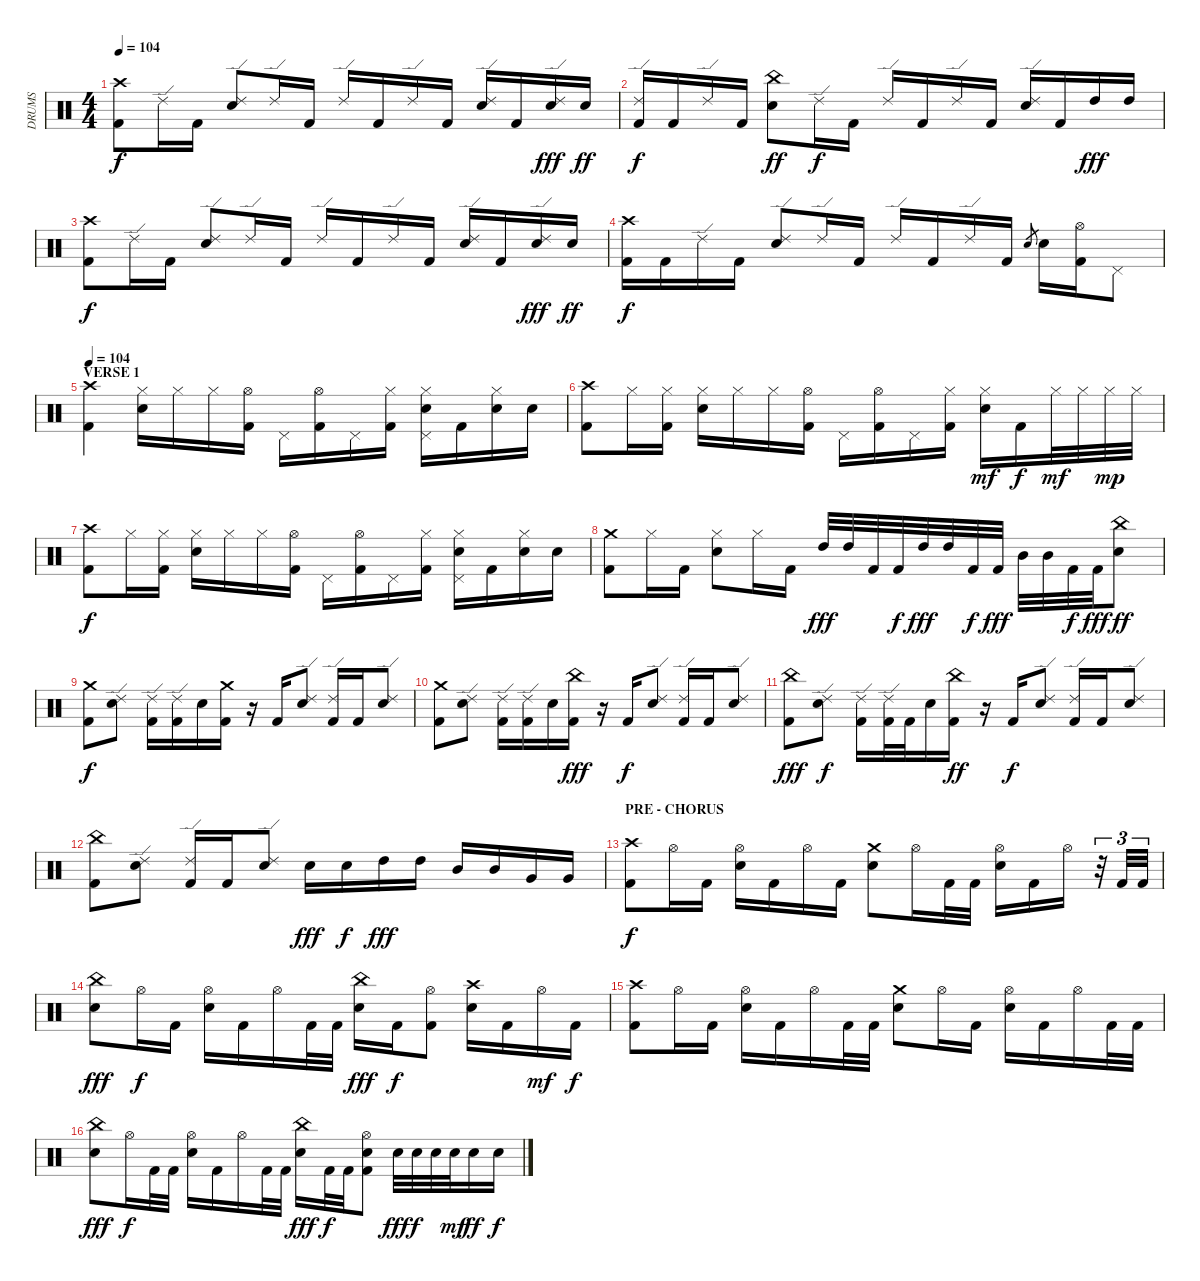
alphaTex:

\track ("DRUMS" "DRUMS") {instrument percussion}
\staff {score}
\articulation defaults
\ts (4 4)
\tempo 104
\clef neutral
\ks c
("Crash high (hit)" "Kick (hit) 2").8{dy f} "Ride (edge) 2".16 "Kick (hit) 2".16 ("Ride (edge) 2" "Electric Snare (hit)").8 "Ride (edge) 2".16 "Kick (hit) 2".16 "Ride (edge) 2".16 "Kick (hit) 2".16 "Ride (edge) 2".16 "Kick (hit) 2".16 ("Ride (edge) 2" "Electric Snare (hit)").16 "Kick (hit) 2".16 ("Ride (edge) 2" "Electric Snare (hit)").16{dy fff} "Electric Snare (hit)".16{dy ff} |
("Ride (edge) 2" "Kick (hit) 2").16{dy f} "Kick (hit) 2".16 "Ride (edge) 2".16 "Kick (hit) 2".16 ("China (hit)" "Electric Snare (hit)").8{dy ff} "Ride (edge) 2".16{dy f} "Kick (hit) 2".16 "Ride (edge) 2".16 "Kick (hit) 2".16 "Ride (edge) 2".16 "Kick (hit) 2".16 ("Ride (edge) 2" "Electric Snare (hit)").16 "Kick (hit) 2".16 "High Tom (hit)".16{dy fff} "High Tom (hit)".16 |
("Crash high (hit)" "Kick (hit) 2").8{dy f} "Ride (edge) 2".16 "Kick (hit) 2".16 ("Ride (edge) 2" "Electric Snare (hit)").8 "Ride (edge) 2".16 "Kick (hit) 2".16 "Ride (edge) 2".16 "Kick (hit) 2".16 "Ride (edge) 2".16 "Kick (hit) 2".16 ("Ride (edge) 2" "Electric Snare (hit)").16 "Kick (hit) 2".16 ("Ride (edge) 2" "Electric Snare (hit)").16{dy fff} "Electric Snare (hit)".16{dy ff} |
("Crash high (hit)" "Kick (hit) 2").16{dy f} "Kick (hit) 2".16 "Ride (edge) 2".16 "Kick (hit) 2".16 ("Ride (edge) 2" "Electric Snare (hit)").8 "Ride (edge) 2".16 "Kick (hit) 2".16 "Ride (edge) 2".16 "Kick (hit) 2".16 "Ride (edge) 2".16 "Kick (hit) 2".16 "Electric Snare (hit)"{h}.8{gr} "Electric Snare (hit)".16 ("Hi-Hat (open)" "Kick (hit) 2").16 "Pedal Hi-Hat (hit)".8 |
\section ("" "VERSE 1")
\tempo 104
("Crash high (hit)" "Kick (hit) 2").4 ("Hi-Hat (closed)" "Electric Snare (hit)").16 "Hi-Hat (closed)".16 "Hi-Hat (closed)".16 ("Hi-Hat (open)" "Kick (hit) 2").16 "Pedal Hi-Hat (hit)".16 ("Hi-Hat (open)" "Kick (hit) 2").16 "Pedal Hi-Hat (hit)".16 ("Hi-Hat (closed)" "Kick (hit) 2").16 ("Hi-Hat (closed)" "Electric Snare (hit)" "Pedal Hi-Hat (hit)").16 "Kick (hit) 2".16 ("Hi-Hat (closed)" "Electric Snare (hit)").16 "Electric Snare (hit)".16 |
("Crash high (hit)" "Kick (hit) 2").8 "Hi-Hat (closed)".16 ("Hi-Hat (closed)" "Kick (hit) 2").16 ("Hi-Hat (closed)" "Electric Snare (hit)").16 "Hi-Hat (closed)".16 "Hi-Hat (closed)".16 ("Hi-Hat (open)" "Kick (hit) 2").16 "Pedal Hi-Hat (hit)".16 ("Hi-Hat (open)" "Kick (hit) 2").16 "Pedal Hi-Hat (hit)".16 ("Hi-Hat (closed)" "Kick (hit) 2").16 ("Hi-Hat (closed)" "Electric Snare (hit)").16{dy mf} "Kick (hit) 2".16{dy f} "Hi-Hat (closed)".32{dy mf} "Hi-Hat (closed)".32 "Hi-Hat (closed)".32{dy mp} "Hi-Hat (closed)".32 |
("Crash high (hit)" "Kick (hit) 2").8{dy f} "Hi-Hat (closed)".16 ("Hi-Hat (closed)" "Kick (hit) 2").16 ("Hi-Hat (closed)" "Electric Snare (hit)").16 "Hi-Hat (closed)".16 "Hi-Hat (closed)".16 ("Hi-Hat (open)" "Kick (hit) 2").16 "Pedal Hi-Hat (hit)".16 ("Hi-Hat (open)" "Kick (hit) 2").16 "Pedal Hi-Hat (hit)".16 ("Hi-Hat (closed)" "Kick (hit) 2").16 ("Hi-Hat (closed)" "Electric Snare (hit)" "Pedal Hi-Hat (hit)").16 "Kick (hit) 2".16 ("Hi-Hat (closed)" "Electric Snare (hit)").16 "Electric Snare (hit)".16 |
("Crash medium (hit)" "Kick (hit) 2").8 "Hi-Hat (closed)".16 "Kick (hit) 2".16 ("Hi-Hat (closed)" "Electric Snare (hit)").8 "Hi-Hat (closed)".16 "Kick (hit) 2".16 "High Tom (hit)".32{dy fff} "High Tom (hit)".32 "Kick (hit) 2".32 "Kick (hit) 2".32{dy f} "High Tom (hit)".32{dy fff} "High Tom (hit)".32 "Kick (hit) 2".32{dy f} "Kick (hit) 2".32{dy fff} "Mid Tom (hit)".32 "Mid Tom (hit)".32 "Kick (hit) 2".32{dy f} "Kick (hit) 2".32{dy fff} ("China (hit)" "Electric Snare (hit)").8{dy ff} |
("Crash medium (hit)" "Kick (hit) 2").8{dy f} ("Ride (edge) 2" "Electric Snare (hit)").8 ("Ride (edge) 2" "Kick (hit) 2").16 ("Ride (edge) 2" "Kick (hit) 2").16 "Electric Snare (hit)".16 ("Crash medium (hit)" "Kick (hit) 2").16 r.16 "Kick (hit) 2".16 ("Ride (edge) 2" "Electric Snare (hit)").8 ("Ride (edge) 2" "Kick (hit) 2").16 "Kick (hit) 2".16 ("Ride (edge) 2" "Electric Snare (hit)").8 |
("Crash medium (hit)" "Kick (hit) 2").8 ("Ride (edge) 2" "Electric Snare (hit)").8 ("Ride (edge) 2" "Kick (hit) 2").16 ("Ride (edge) 2" "Kick (hit) 2").16 "Electric Snare (hit)".16 ("China (hit)" "Kick (hit) 2").16{dy fff} r.16 "Kick (hit) 2".16{dy f} ("Ride (edge) 2" "Electric Snare (hit)").8 ("Ride (edge) 2" "Kick (hit) 2").16 "Kick (hit) 2".16 ("Ride (edge) 2" "Electric Snare (hit)").8 |
("China (hit)" "Kick (hit) 2").8{dy fff} ("Ride (edge) 2" "Electric Snare (hit)").8{dy f} ("Ride (edge) 2" "Kick (hit) 2").16 ("Ride (edge) 2" "Kick (hit) 2").32 "Kick (hit) 2".32 "Electric Snare (hit)".16 ("China (hit)" "Kick (hit) 2").16{dy ff} r.16 "Kick (hit) 2".16{dy f} ("Ride (edge) 2" "Electric Snare (hit)").8 ("Ride (edge) 2" "Kick (hit) 2").16 "Kick (hit) 2".16 ("Ride (edge) 2" "Electric Snare (hit)").8 |
("China (hit)" "Kick (hit) 2").8 ("Ride (edge) 2" "Electric Snare (hit)").8 ("Ride (edge) 2" "Kick (hit) 2").16 "Kick (hit) 2".16 ("Ride (edge) 2" "Electric Snare (hit)").8 "Electric Snare (hit)".16{dy fff} "Electric Snare (hit)".16{dy f} "High Tom (hit)".16{dy fff} "High Tom (hit)".16 "Mid Tom (hit)".16 "Mid Tom (hit)".16 "Very Low Tom (hit)".16 "Very Low Tom (hit)".16 |
\section ("" "PRE - CHORUS")
("Crash high (hit)" "Kick (hit) 2").8{dy f} "Hi-Hat (open)".16 "Kick (hit) 2".16 ("Hi-Hat (open)" "Electric Snare (hit)").16 "Kick (hit) 2".16 "Hi-Hat (open)".16 "Kick (hit) 2".16 ("Crash medium (hit)" "Electric Snare (hit)").8 "Hi-Hat (open)".16 "Kick (hit) 2".32 "Kick (hit) 2".32 ("Hi-Hat (open)" "Electric Snare (hit)").16 "Kick (hit) 2".16 "Hi-Hat (open)".16 r.32{tu (3 2)} "Kick (hit) 2".32{tu (3 2)} "Kick (hit) 2".32{tu (3 2)} |
("China (hit)" "Electric Snare (hit)").8{dy fff} "Hi-Hat (open)".16{dy f} "Kick (hit) 2".16 ("Hi-Hat (open)" "Electric Snare (hit)").16 "Kick (hit) 2".16 "Hi-Hat (open)".16 "Kick (hit) 2".32 "Kick (hit) 2".32 ("China (hit)" "Electric Snare (hit)").16{dy fff} "Kick (hit) 2".16{dy f} ("Hi-Hat (open)" "Kick (hit) 2").8 ("Crash high (hit)" "Electric Snare (hit)").16 "Kick (hit) 2".16 "Hi-Hat (open)".16{dy mf} "Kick (hit) 2".16{dy f} |
("Crash high (hit)" "Kick (hit) 2").8 "Hi-Hat (open)".16 "Kick (hit) 2".16 ("Hi-Hat (open)" "Electric Snare (hit)").16 "Kick (hit) 2".16 "Hi-Hat (open)".16 "Kick (hit) 2".32 "Kick (hit) 2".32 ("Crash medium (hit)" "Electric Snare (hit)").8 "Hi-Hat (open)".16 "Kick (hit) 2".16 ("Hi-Hat (open)" "Electric Snare (hit)").16 "Kick (hit) 2".16 "Hi-Hat (open)".16 "Kick (hit) 2".32 "Kick (hit) 2".32 |
("China (hit)" "Electric Snare (hit)").8{dy fff} "Hi-Hat (open)".16{dy f} "Kick (hit) 2".32 "Kick (hit) 2".32 ("Hi-Hat (open)" "Electric Snare (hit)").16 "Kick (hit) 2".16 "Hi-Hat (open)".16 "Kick (hit) 2".32 "Kick (hit) 2".32 ("China (hit)" "Electric Snare (hit)").16{dy fff} "Kick (hit) 2".32{dy f} "Kick (hit) 2".32 ("Hi-Hat (open)" "Electric Snare (hit)" "Kick (hit) 2").8 "Electric Snare (hit)".32{dy fff} "Electric Snare (hit)".32{dy f} "Electric Snare (hit)".32 "Electric Snare (hit)".32{dy mf} "Electric Snare (hit)".16{dy ff} "Electric Snare (hit)".16{dy f}
